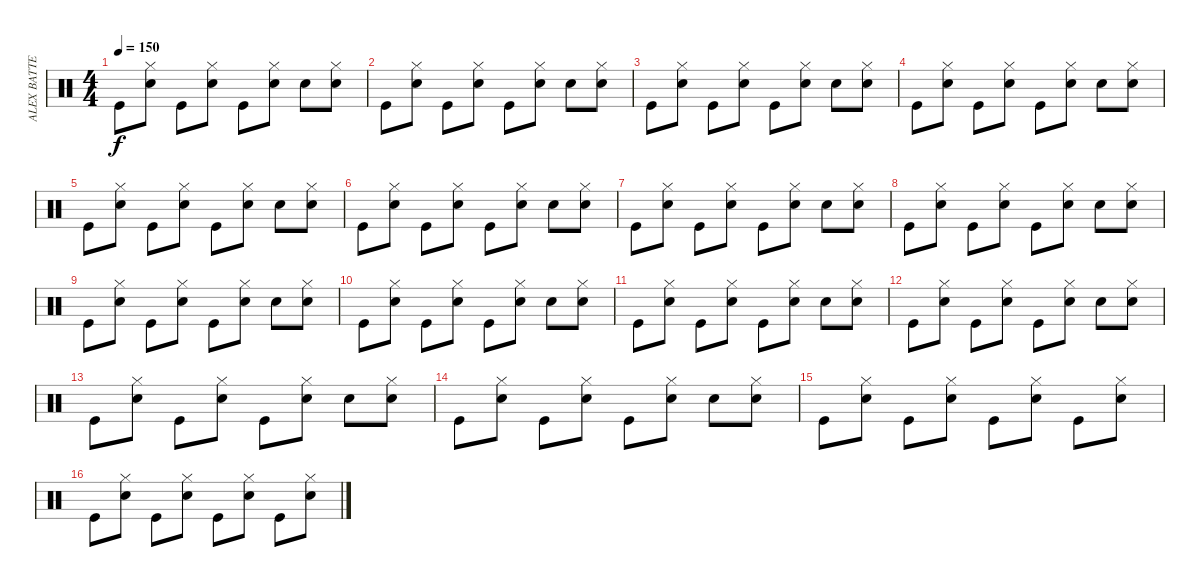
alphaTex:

\track ("ALEX BATTERIE" "ALEX BATTE") {instrument percussion}
\staff {score}
\articulation defaults
\ts (4 4)
\tempo 150
\clef neutral
\ks c "Kick (hit)".8{dy f}
("Hi-Hat (closed)" "Electric Snare (hit)").8 "Kick (hit)".8 ("Hi-Hat (closed)" "Electric Snare (hit)").8 "Kick (hit)".8 ("Hi-Hat (closed)" "Electric Snare (hit)").8 "Metronome (bell)".8 ("Hi-Hat (closed)" "Electric Snare (hit)").8 |
"Kick (hit)".8 ("Hi-Hat (closed)" "Electric Snare (hit)").8 "Kick (hit)".8 ("Hi-Hat (closed)" "Electric Snare (hit)").8 "Kick (hit)".8 ("Hi-Hat (closed)" "Electric Snare (hit)").8 "Metronome (bell)".8 ("Hi-Hat (closed)" "Electric Snare (hit)").8 |
"Kick (hit)".8 ("Hi-Hat (closed)" "Electric Snare (hit)").8 "Kick (hit)".8 ("Hi-Hat (closed)" "Electric Snare (hit)").8 "Kick (hit)".8 ("Hi-Hat (closed)" "Electric Snare (hit)").8 "Metronome (bell)".8 ("Hi-Hat (closed)" "Electric Snare (hit)").8 |
"Kick (hit)".8 ("Hi-Hat (closed)" "Electric Snare (hit)").8 "Kick (hit)".8 ("Hi-Hat (closed)" "Electric Snare (hit)").8 "Kick (hit)".8 ("Hi-Hat (closed)" "Electric Snare (hit)").8 "Metronome (bell)".8 ("Hi-Hat (closed)" "Electric Snare (hit)").8 |
"Kick (hit)".8 ("Hi-Hat (closed)" "Electric Snare (hit)").8 "Kick (hit)".8 ("Hi-Hat (closed)" "Electric Snare (hit)").8 "Kick (hit)".8 ("Hi-Hat (closed)" "Electric Snare (hit)").8 "Metronome (bell)".8 ("Hi-Hat (closed)" "Electric Snare (hit)").8 |
"Kick (hit)".8 ("Hi-Hat (closed)" "Electric Snare (hit)").8 "Kick (hit)".8 ("Hi-Hat (closed)" "Electric Snare (hit)").8 "Kick (hit)".8 ("Hi-Hat (closed)" "Electric Snare (hit)").8 "Metronome (bell)".8 ("Hi-Hat (closed)" "Electric Snare (hit)").8 |
"Kick (hit)".8 ("Hi-Hat (closed)" "Electric Snare (hit)").8 "Kick (hit)".8 ("Hi-Hat (closed)" "Electric Snare (hit)").8 "Kick (hit)".8 ("Hi-Hat (closed)" "Electric Snare (hit)").8 "Metronome (bell)".8 ("Hi-Hat (closed)" "Electric Snare (hit)").8 |
"Kick (hit)".8 ("Hi-Hat (closed)" "Electric Snare (hit)").8 "Kick (hit)".8 ("Hi-Hat (closed)" "Electric Snare (hit)").8 "Kick (hit)".8 ("Hi-Hat (closed)" "Electric Snare (hit)").8 "Metronome (bell)".8 ("Hi-Hat (closed)" "Electric Snare (hit)").8 |
"Kick (hit)".8 ("Hi-Hat (closed)" "Electric Snare (hit)").8 "Kick (hit)".8 ("Hi-Hat (closed)" "Electric Snare (hit)").8 "Kick (hit)".8 ("Hi-Hat (closed)" "Electric Snare (hit)").8 "Metronome (bell)".8 ("Hi-Hat (closed)" "Electric Snare (hit)").8 |
"Kick (hit)".8 ("Hi-Hat (closed)" "Electric Snare (hit)").8 "Kick (hit)".8 ("Hi-Hat (closed)" "Electric Snare (hit)").8 "Kick (hit)".8 ("Hi-Hat (closed)" "Electric Snare (hit)").8 "Metronome (bell)".8 ("Hi-Hat (closed)" "Electric Snare (hit)").8 |
"Kick (hit)".8 ("Hi-Hat (closed)" "Electric Snare (hit)").8 "Kick (hit)".8 ("Hi-Hat (closed)" "Electric Snare (hit)").8 "Kick (hit)".8 ("Hi-Hat (closed)" "Electric Snare (hit)").8 "Metronome (bell)".8 ("Hi-Hat (closed)" "Electric Snare (hit)").8 |
"Kick (hit)".8 ("Hi-Hat (closed)" "Electric Snare (hit)").8 "Kick (hit)".8 ("Hi-Hat (closed)" "Electric Snare (hit)").8 "Kick (hit)".8 ("Hi-Hat (closed)" "Electric Snare (hit)").8 "Metronome (bell)".8 ("Hi-Hat (closed)" "Electric Snare (hit)").8 |
"Kick (hit)".8 ("Hi-Hat (closed)" "Electric Snare (hit)").8 "Kick (hit)".8 ("Hi-Hat (closed)" "Electric Snare (hit)").8 "Kick (hit)".8 ("Hi-Hat (closed)" "Electric Snare (hit)").8 "Metronome (bell)".8 ("Hi-Hat (closed)" "Electric Snare (hit)").8 |
"Kick (hit)".8 ("Hi-Hat (closed)" "Electric Snare (hit)").8 "Kick (hit)".8 ("Hi-Hat (closed)" "Electric Snare (hit)").8 "Kick (hit)".8 ("Hi-Hat (closed)" "Electric Snare (hit)").8 "Metronome (bell)".8 ("Hi-Hat (closed)" "Electric Snare (hit)").8 |
"Kick (hit)".8 ("Hi-Hat (closed)" "Electric Snare (hit)").8 "Kick (hit)".8 ("Hi-Hat (closed)" "Electric Snare (hit)").8 "Kick (hit)".8 ("Hi-Hat (closed)" "Electric Snare (hit)").8 "Kick (hit)".8 ("Hi-Hat (closed)" "Electric Snare (hit)").8 |
"Kick (hit)".8 ("Hi-Hat (closed)" "Electric Snare (hit)").8 "Kick (hit)".8 ("Hi-Hat (closed)" "Electric Snare (hit)").8 "Kick (hit)".8 ("Hi-Hat (closed)" "Electric Snare (hit)").8 "Kick (hit)".8 ("Hi-Hat (closed)" "Electric Snare (hit)").8
